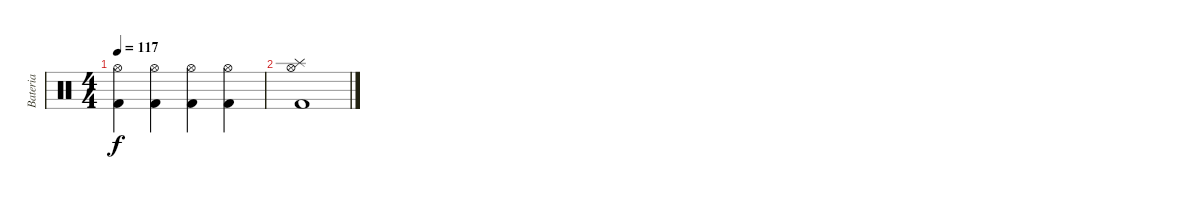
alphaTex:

\track ("Bateria" "Bateria") {instrument percussion}
\staff
\articulation defaults
\ts (4 4)
\tempo 117
\clef neutral
\ks c
("Hi-Hat (open)" "Kick (hit) 2").4{dy f} ("Hi-Hat (open)" "Kick (hit) 2").4 ("Hi-Hat (open)" "Kick (hit) 2").4 ("Hi-Hat (open)" "Kick (hit) 2").4 |
("Splash (hit)" "Hi-Hat (open)" "Kick (hit) 2").1
